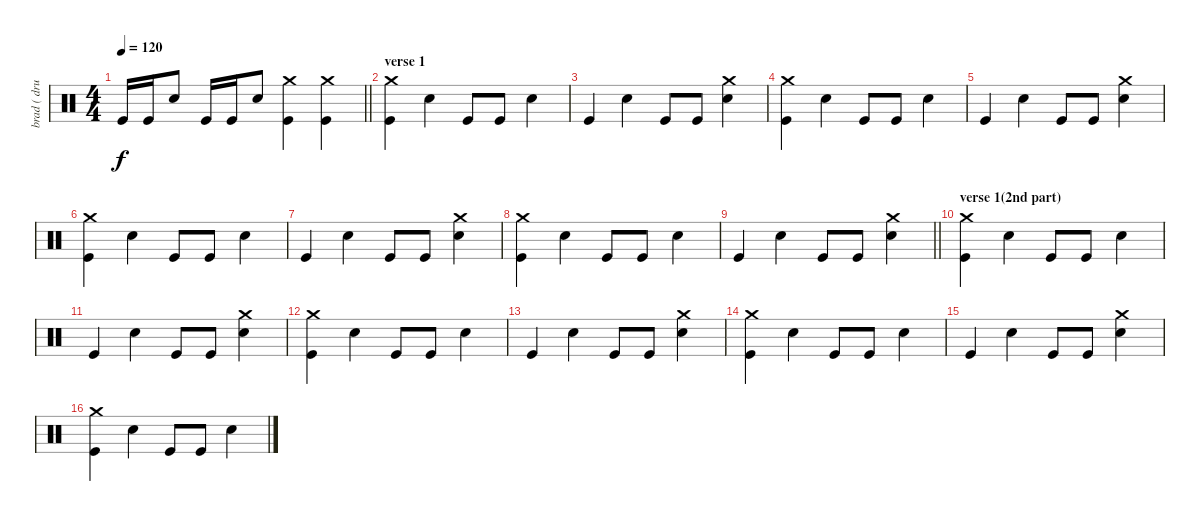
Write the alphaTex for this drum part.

\track ("brad ( drums)" "brad ( dru") {instrument percussion}
\staff {score}
\articulation defaults
\ts (4 4)
\tempo 120
\clef neutral
\barLineRight lightlight
\ks c "Kick (hit)".16{dy f} "Kick (hit)".16 "Electric Snare (hit)".8 "Kick (hit)".16 "Kick (hit)".16 "Electric Snare (hit)".8
("Kick (hit)" "Crash medium (hit)").4 ("Kick (hit)" "Crash medium (hit)").4 |
\section ("" "verse 1")
("Kick (hit)" "Crash medium (hit)").4 "Electric Snare (hit)".4 "Kick (hit)".8 "Kick (hit)".8 "Electric Snare (hit)".4 |
"Kick (hit)".4 "Electric Snare (hit)".4 "Kick (hit)".8 "Kick (hit)".8 ("Electric Snare (hit)" "Crash medium (hit)").4 |
("Kick (hit)" "Crash medium (hit)").4 "Electric Snare (hit)".4 "Kick (hit)".8 "Kick (hit)".8 "Electric Snare (hit)".4 |
"Kick (hit)".4 "Electric Snare (hit)".4 "Kick (hit)".8 "Kick (hit)".8 ("Electric Snare (hit)" "Crash medium (hit)").4 |
("Kick (hit)" "Crash medium (hit)").4 "Electric Snare (hit)".4 "Kick (hit)".8 "Kick (hit)".8 "Electric Snare (hit)".4 |
"Kick (hit)".4 "Electric Snare (hit)".4 "Kick (hit)".8 "Kick (hit)".8 ("Electric Snare (hit)" "Crash medium (hit)").4 |
("Kick (hit)" "Crash medium (hit)").4 "Electric Snare (hit)".4 "Kick (hit)".8 "Kick (hit)".8 "Electric Snare (hit)".4 |
\barLineRight lightlight "Kick (hit)".4 "Electric Snare (hit)".4 "Kick (hit)".8 "Kick (hit)".8
("Electric Snare (hit)" "Crash medium (hit)").4 |
\section ("" "verse 1(2nd part)")
("Kick (hit)" "Crash medium (hit)").4 "Electric Snare (hit)".4 "Kick (hit)".8 "Kick (hit)".8 "Electric Snare (hit)".4 |
"Kick (hit)".4 "Electric Snare (hit)".4 "Kick (hit)".8 "Kick (hit)".8 ("Electric Snare (hit)" "Crash medium (hit)").4 |
("Kick (hit)" "Crash medium (hit)").4 "Electric Snare (hit)".4 "Kick (hit)".8 "Kick (hit)".8 "Electric Snare (hit)".4 |
"Kick (hit)".4 "Electric Snare (hit)".4 "Kick (hit)".8 "Kick (hit)".8 ("Electric Snare (hit)" "Crash medium (hit)").4 |
("Kick (hit)" "Crash medium (hit)").4 "Electric Snare (hit)".4 "Kick (hit)".8 "Kick (hit)".8 "Electric Snare (hit)".4 |
"Kick (hit)".4 "Electric Snare (hit)".4 "Kick (hit)".8 "Kick (hit)".8 ("Electric Snare (hit)" "Crash medium (hit)").4 |
("Kick (hit)" "Crash medium (hit)").4 "Electric Snare (hit)".4 "Kick (hit)".8 "Kick (hit)".8 "Electric Snare (hit)".4
